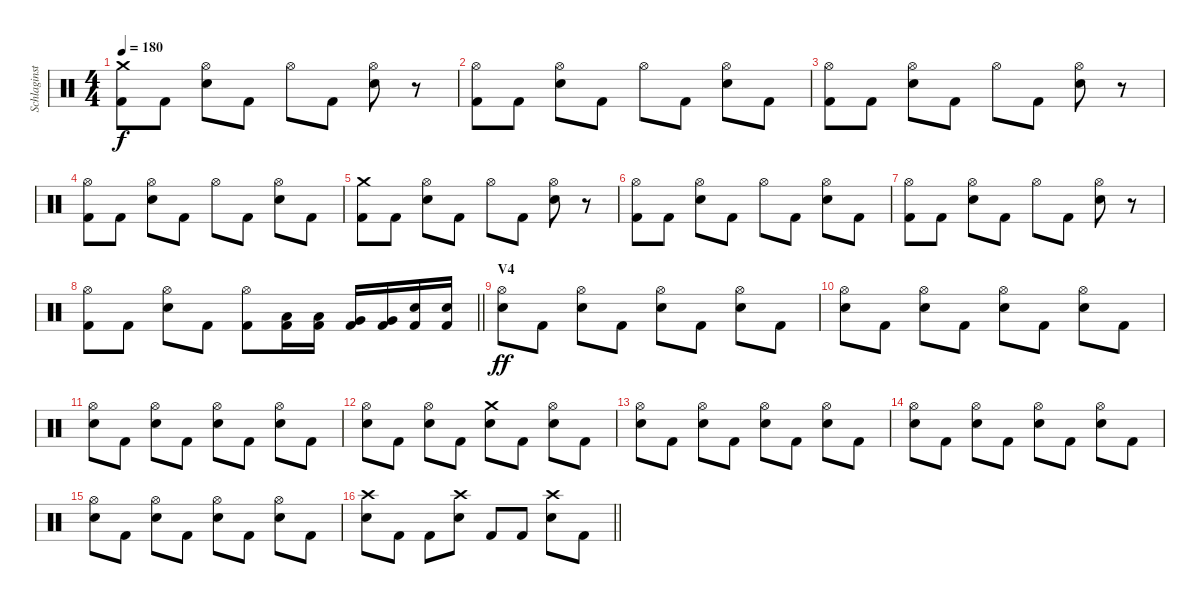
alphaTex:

\track ("Schlaginstrumente - Auswahl" "Schlaginst") {instrument percussion}
\staff {score}
\articulation defaults
\ts (4 4)
\tempo 180
\clef neutral
\ks c
("Crash medium (hit)" "Kick (hit) 2").8{dy f} "Kick (hit) 2".8 ("Hi-Hat (open)" "Snare (hit) 2").8 "Kick (hit) 2".8 "Hi-Hat (open)".8 "Kick (hit) 2".8 ("Hi-Hat (open)" "Snare (hit) 2").8 r.8 |
("Hi-Hat (open)" "Kick (hit) 2").8 "Kick (hit) 2".8 ("Hi-Hat (open)" "Snare (hit) 2").8 "Kick (hit) 2".8 "Hi-Hat (open)".8 "Kick (hit) 2".8 ("Hi-Hat (open)" "Snare (hit) 2").8 "Kick (hit) 2".8 |
("Hi-Hat (open)" "Kick (hit) 2").8 "Kick (hit) 2".8 ("Hi-Hat (open)" "Snare (hit) 2").8 "Kick (hit) 2".8 "Hi-Hat (open)".8 "Kick (hit) 2".8 ("Hi-Hat (open)" "Snare (hit) 2").8 r.8 |
("Hi-Hat (open)" "Kick (hit) 2").8 "Kick (hit) 2".8 ("Hi-Hat (open)" "Snare (hit) 2").8 "Kick (hit) 2".8 "Hi-Hat (open)".8 "Kick (hit) 2".8 ("Hi-Hat (open)" "Snare (hit) 2").8 "Kick (hit) 2".8 |
("Crash medium (hit)" "Kick (hit) 2").8 "Kick (hit) 2".8 ("Hi-Hat (open)" "Snare (hit) 2").8 "Kick (hit) 2".8 "Hi-Hat (open)".8 "Kick (hit) 2".8 ("Hi-Hat (open)" "Snare (hit) 2").8 r.8 |
("Hi-Hat (open)" "Kick (hit) 2").8 "Kick (hit) 2".8 ("Hi-Hat (open)" "Snare (hit) 2").8 "Kick (hit) 2".8 "Hi-Hat (open)".8 "Kick (hit) 2".8 ("Hi-Hat (open)" "Snare (hit) 2").8 "Kick (hit) 2".8 |
("Hi-Hat (open)" "Kick (hit) 2").8 "Kick (hit) 2".8 ("Hi-Hat (open)" "Snare (hit) 2").8 "Kick (hit) 2".8 "Hi-Hat (open)".8 "Kick (hit) 2".8 ("Hi-Hat (open)" "Snare (hit) 2").8 r.8 |
\barLineRight lightlight
("Hi-Hat (open)" "Kick (hit) 2").8 "Kick (hit) 2".8 ("Hi-Hat (open)" "Snare (hit) 2").8 "Kick (hit) 2".8 ("Hi-Hat (open)" "Kick (hit) 2").8 ("Low Tom (hit)" "Kick (hit) 2").16 ("Low Tom (hit)" "Kick (hit) 2").16 ("Very Low Tom (hit)" "Kick (hit) 2").16 ("Very Low Tom (hit)" "Kick (hit) 2").16 ("Snare (hit) 2" "Kick (hit) 2").16 ("Snare (hit) 2" "Kick (hit) 2").16 |
\section ("" "V4")
("Hi-Hat (open)" "Electric Snare (hit)").8{dy ff} "Kick (hit) 2".8 ("Hi-Hat (open)" "Electric Snare (hit)").8 "Kick (hit) 2".8 ("Hi-Hat (open)" "Electric Snare (hit)").8 "Kick (hit) 2".8 ("Hi-Hat (open)" "Electric Snare (hit)").8 "Kick (hit) 2".8 |
("Hi-Hat (open)" "Electric Snare (hit)").8 "Kick (hit) 2".8 ("Hi-Hat (open)" "Electric Snare (hit)").8 "Kick (hit) 2".8 ("Hi-Hat (open)" "Electric Snare (hit)").8 "Kick (hit) 2".8 ("Hi-Hat (open)" "Electric Snare (hit)").8 "Kick (hit) 2".8 |
("Hi-Hat (open)" "Electric Snare (hit)").8 "Kick (hit) 2".8 ("Hi-Hat (open)" "Electric Snare (hit)").8 "Kick (hit) 2".8 ("Hi-Hat (open)" "Electric Snare (hit)").8 "Kick (hit) 2".8 ("Hi-Hat (open)" "Electric Snare (hit)").8 "Kick (hit) 2".8 |
("Hi-Hat (open)" "Electric Snare (hit)").8 "Kick (hit) 2".8 ("Hi-Hat (open)" "Electric Snare (hit)").8 "Kick (hit) 2".8 ("Crash medium (hit)" "Electric Snare (hit)").8 "Kick (hit) 2".8 ("Hi-Hat (open)" "Electric Snare (hit)").8 "Kick (hit) 2".8 |
("Hi-Hat (open)" "Electric Snare (hit)").8 "Kick (hit) 2".8 ("Hi-Hat (open)" "Electric Snare (hit)").8 "Kick (hit) 2".8 ("Hi-Hat (open)" "Electric Snare (hit)").8 "Kick (hit) 2".8 ("Hi-Hat (open)" "Electric Snare (hit)").8 "Kick (hit) 2".8 |
("Hi-Hat (open)" "Electric Snare (hit)").8 "Kick (hit) 2".8 ("Hi-Hat (open)" "Electric Snare (hit)").8 "Kick (hit) 2".8 ("Hi-Hat (open)" "Electric Snare (hit)").8 "Kick (hit) 2".8 ("Hi-Hat (open)" "Electric Snare (hit)").8 "Kick (hit) 2".8 |
("Hi-Hat (open)" "Electric Snare (hit)").8 "Kick (hit) 2".8 ("Hi-Hat (open)" "Electric Snare (hit)").8 "Kick (hit) 2".8 ("Hi-Hat (open)" "Electric Snare (hit)").8 "Kick (hit) 2".8 ("Hi-Hat (open)" "Electric Snare (hit)").8 "Kick (hit) 2".8 |
\barLineRight lightlight
("Crash high (hit)" "Electric Snare (hit)").8 "Kick (hit) 2".8 "Kick (hit) 2".8 ("Crash high (hit)" "Electric Snare (hit)").8 "Kick (hit) 2".8 "Kick (hit) 2".8 ("Crash high (hit)" "Electric Snare (hit)").8 "Kick (hit) 2".8
